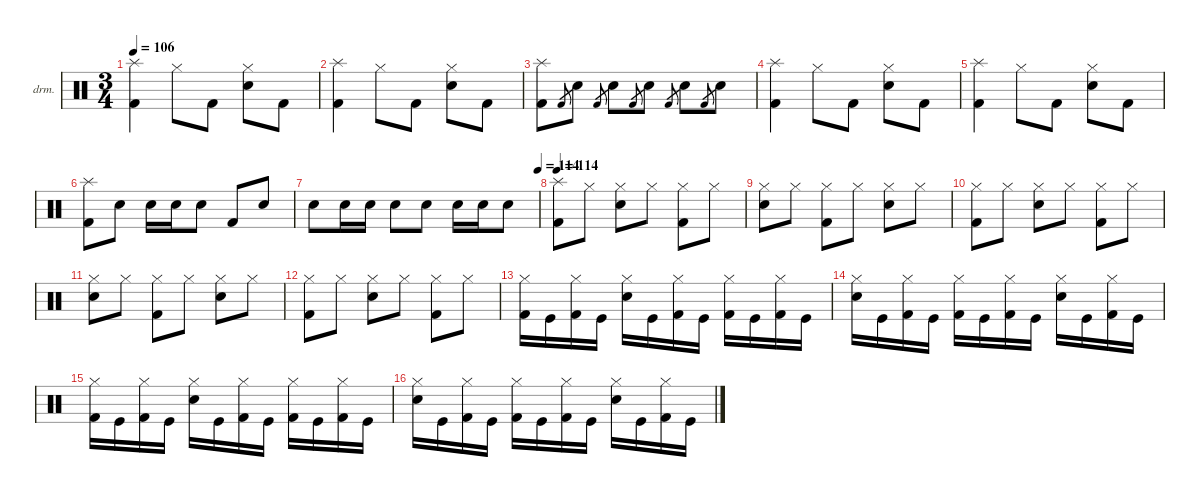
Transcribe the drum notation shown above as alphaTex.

\defaultSystemsLayout 4
\hideDynamics
\bracketExtendMode nobrackets
\firstSystemTrackNameOrientation horizontal
\otherSystemsTrackNameOrientation horizontal
\track ("Lars Ulrich" "drm.") {instrument percussion}
\staff {score}
\articulation defaults
\ts (3 4)
\tempo 106
\clef neutral
\ks c
("Splash (hit)" "Kick (hit) 2").4{dy fff} "Hi-Hat (closed)".8{dy f} "Kick (hit) 2".8 ("Hi-Hat (closed)" "Snare (hit) 2").8{dy fff} "Kick (hit) 2".8{dy f} |
("Splash (hit)" "Kick (hit) 2").4{dy fff} "Hi-Hat (closed)".8{dy f} "Kick (hit) 2".8 ("Hi-Hat (closed)" "Snare (hit) 2").8{dy fff} "Kick (hit) 2".8{dy f} |
("Splash (hit)" "Kick (hit) 2").8{dy fff} "Kick (hit) 2".8{gr dy mf} "Snare (hit) 2".8{dy f} "Kick (hit) 2".8{gr dy mf} "Snare (hit) 2".8{dy f} "Kick (hit) 2".8{gr dy mf} "Snare (hit) 2".8{dy f} "Kick (hit) 2".8{gr dy mf} "Snare (hit) 2".8{dy f} "Kick (hit) 2".8{gr dy mf} "Snare (hit) 2".8{dy f} |
("Splash (hit)" "Kick (hit) 2").4{dy fff} "Hi-Hat (closed)".8{dy f} "Kick (hit) 2".8 ("Hi-Hat (closed)" "Snare (hit) 2").8{dy fff} "Kick (hit) 2".8{dy f} |
("Splash (hit)" "Kick (hit) 2").4{dy fff} "Hi-Hat (closed)".8{dy f} "Kick (hit) 2".8 ("Hi-Hat (closed)" "Snare (hit) 2").8{dy fff} "Kick (hit) 2".8{dy f} |
("Splash (hit)" "Kick (hit) 2").8{dy fff} "Snare (hit) 2".8{dy f} "Snare (hit) 2".16 "Snare (hit) 2".16 "Snare (hit) 2".8 "Kick (hit) 2".8 "Snare (hit) 2".8 |
\tempo (114 1)
"Snare (hit) 2".8 "Snare (hit) 2".16 "Snare (hit) 2".16 "Snare (hit) 2".8 "Snare (hit) 2".8 "Snare (hit) 2".16 "Snare (hit) 2".16 "Snare (hit) 2".8 |
\tempo 114
("Splash (hit)" "Kick (hit) 2").8{dy fff} "Hi-Hat (closed)".8{dy f} ("Hi-Hat (closed)" "Snare (hit) 2").8 "Hi-Hat (closed)".8 ("Hi-Hat (closed)" "Kick (hit) 2").8 "Hi-Hat (closed)".8 |
("Hi-Hat (closed)" "Snare (hit) 2").8 "Hi-Hat (closed)".8 ("Hi-Hat (closed)" "Kick (hit) 2").8 "Hi-Hat (closed)".8 ("Hi-Hat (closed)" "Snare (hit) 2").8 "Hi-Hat (closed)".8 |
("Hi-Hat (closed)" "Kick (hit) 2").8{dy fff} "Hi-Hat (closed)".8{dy f} ("Hi-Hat (closed)" "Snare (hit) 2").8 "Hi-Hat (closed)".8 ("Hi-Hat (closed)" "Kick (hit) 2").8 "Hi-Hat (closed)".8 |
("Hi-Hat (closed)" "Snare (hit) 2").8 "Hi-Hat (closed)".8 ("Hi-Hat (closed)" "Kick (hit) 2").8 "Hi-Hat (closed)".8 ("Hi-Hat (closed)" "Snare (hit) 2").8 "Hi-Hat (closed)".8 |
("Hi-Hat (closed)" "Kick (hit) 2").8{dy fff} "Hi-Hat (closed)".8{dy f} ("Hi-Hat (closed)" "Snare (hit) 2").8 "Hi-Hat (closed)".8 ("Hi-Hat (closed)" "Kick (hit) 2").8 "Hi-Hat (closed)".8 |
("Hi-Hat (closed)" "Kick (hit) 2").16 "Kick (hit)".16 ("Hi-Hat (closed)" "Kick (hit) 2").16 "Kick (hit)".16 ("Hi-Hat (closed)" "Snare (hit) 2").16 "Kick (hit)".16 ("Hi-Hat (closed)" "Kick (hit) 2").16 "Kick (hit)".16 ("Hi-Hat (closed)" "Kick (hit) 2").16 "Kick (hit)".16 ("Hi-Hat (closed)" "Kick (hit) 2").16 "Kick (hit)".16 |
("Hi-Hat (closed)" "Snare (hit) 2").16 "Kick (hit)".16 ("Hi-Hat (closed)" "Kick (hit) 2").16 "Kick (hit)".16 ("Hi-Hat (closed)" "Kick (hit) 2").16 "Kick (hit)".16 ("Hi-Hat (closed)" "Kick (hit) 2").16 "Kick (hit)".16 ("Hi-Hat (closed)" "Snare (hit) 2").16 "Kick (hit)".16 ("Hi-Hat (closed)" "Kick (hit) 2").16 "Kick (hit)".16 |
("Hi-Hat (closed)" "Kick (hit) 2").16 "Kick (hit)".16 ("Hi-Hat (closed)" "Kick (hit) 2").16 "Kick (hit)".16 ("Hi-Hat (closed)" "Snare (hit) 2").16 "Kick (hit)".16 ("Hi-Hat (closed)" "Kick (hit) 2").16 "Kick (hit)".16 ("Hi-Hat (closed)" "Kick (hit) 2").16 "Kick (hit)".16 ("Hi-Hat (closed)" "Kick (hit) 2").16 "Kick (hit)".16 |
("Hi-Hat (closed)" "Snare (hit) 2").16 "Kick (hit)".16 ("Hi-Hat (closed)" "Kick (hit) 2").16 "Kick (hit)".16 ("Hi-Hat (closed)" "Kick (hit) 2").16 "Kick (hit)".16 ("Hi-Hat (closed)" "Kick (hit) 2").16 "Kick (hit)".16 ("Hi-Hat (closed)" "Snare (hit) 2").16 "Kick (hit)".16 ("Hi-Hat (closed)" "Kick (hit) 2").16 "Kick (hit)".16
